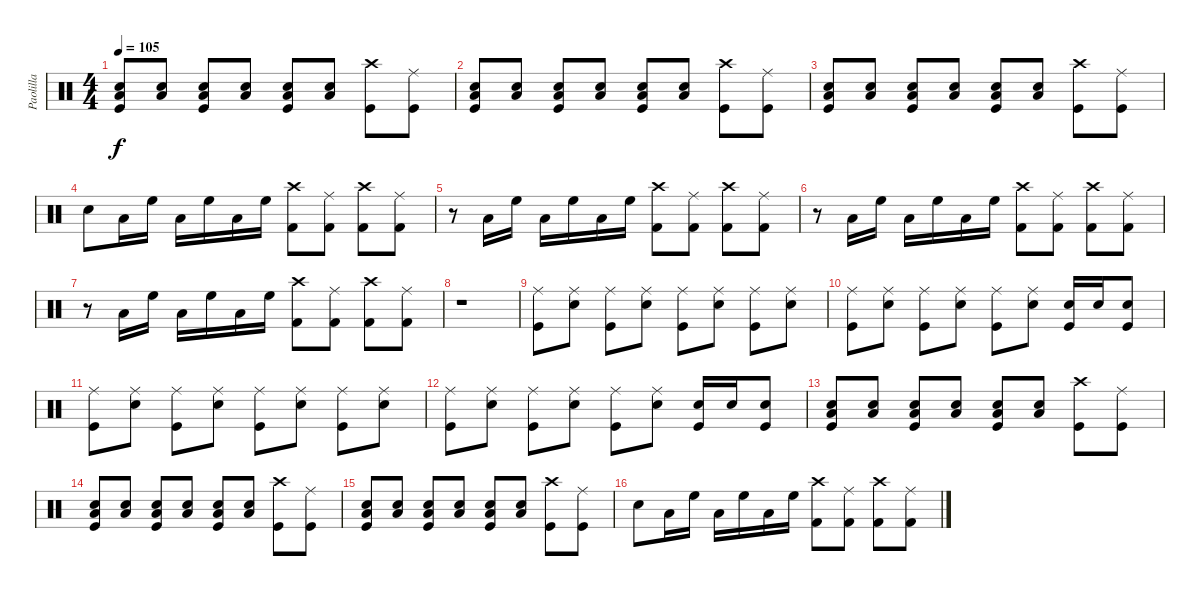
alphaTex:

\track ("Paolilla" "Paolilla") {instrument percussion}
\staff {score}
\articulation defaults
\ts (4 4)
\tempo 105
\clef neutral
\ks c
("Low Tom (hit)" "Snare (hit) 2" "Kick (hit)").8{dy f} ("Low Tom (hit)" "Snare (hit) 2").8 ("Low Tom (hit)" "Snare (hit) 2" "Kick (hit)").8 ("Low Tom (hit)" "Snare (hit) 2").8 ("Low Tom (hit)" "Snare (hit) 2" "Kick (hit)").8 ("Low Tom (hit)" "Snare (hit) 2").8 ("Crash high (hit)" "Kick (hit)").8 ("Ride (middle)" "Kick (hit)").8 |
("Low Tom (hit)" "Snare (hit) 2" "Kick (hit)").8 ("Low Tom (hit)" "Snare (hit) 2").8 ("Low Tom (hit)" "Snare (hit) 2" "Kick (hit)").8 ("Low Tom (hit)" "Snare (hit) 2").8 ("Low Tom (hit)" "Snare (hit) 2" "Kick (hit)").8 ("Low Tom (hit)" "Snare (hit) 2").8 ("Crash high (hit)" "Kick (hit)").8 ("Ride (middle)" "Kick (hit)").8 |
("Low Tom (hit)" "Snare (hit) 2" "Kick (hit)").8 ("Low Tom (hit)" "Snare (hit) 2").8 ("Low Tom (hit)" "Snare (hit) 2" "Kick (hit)").8 ("Low Tom (hit)" "Snare (hit) 2").8 ("Low Tom (hit)" "Snare (hit) 2" "Kick (hit)").8 ("Low Tom (hit)" "Snare (hit) 2").8 ("Crash high (hit)" "Kick (hit)").8 ("Ride (middle)" "Kick (hit)").8 |
"Snare (hit) 2".8 "Low Tom (hit)".16 "High Floor Tom (hit)".16 "Low Tom (hit)".16 "High Floor Tom (hit)".16 "Low Tom (hit)".16 "High Floor Tom (hit)".16 ("Crash high (hit)" "Kick (hit) 2").8 ("Ride (middle)" "Kick (hit) 2").8 ("Crash high (hit)" "Kick (hit) 2").8 ("Ride (middle)" "Kick (hit) 2").8 |
r.8 "Low Tom (hit)".16 "High Floor Tom (hit)".16 "Low Tom (hit)".16 "High Floor Tom (hit)".16 "Low Tom (hit)".16 "High Floor Tom (hit)".16 ("Crash high (hit)" "Kick (hit) 2").8 ("Ride (middle)" "Kick (hit) 2").8 ("Crash high (hit)" "Kick (hit) 2").8 ("Ride (middle)" "Kick (hit) 2").8 |
r.8 "Low Tom (hit)".16 "High Floor Tom (hit)".16 "Low Tom (hit)".16 "High Floor Tom (hit)".16 "Low Tom (hit)".16 "High Floor Tom (hit)".16 ("Crash high (hit)" "Kick (hit) 2").8 ("Ride (middle)" "Kick (hit) 2").8 ("Crash high (hit)" "Kick (hit) 2").8 ("Ride (middle)" "Kick (hit) 2").8 |
r.8 "Low Tom (hit)".16 "High Floor Tom (hit)".16 "Low Tom (hit)".16 "High Floor Tom (hit)".16 "Low Tom (hit)".16 "High Floor Tom (hit)".16 ("Crash high (hit)" "Kick (hit) 2").8 ("Ride (middle)" "Kick (hit) 2").8 ("Crash high (hit)" "Kick (hit) 2").8 ("Ride (middle)" "Kick (hit) 2").8 |
r.1 |
("Ride (middle)" "Kick (hit)").8 ("Ride (middle)" "Snare (hit) 2").8 ("Ride (middle)" "Kick (hit)").8 ("Ride (middle)" "Snare (hit) 2").8 ("Ride (middle)" "Kick (hit)").8 ("Ride (middle)" "Snare (hit) 2").8 ("Ride (middle)" "Kick (hit)").8 ("Ride (middle)" "Snare (hit) 2").8 |
("Ride (middle)" "Kick (hit)").8 ("Ride (middle)" "Snare (hit) 2").8 ("Ride (middle)" "Kick (hit)").8 ("Ride (middle)" "Snare (hit) 2").8 ("Ride (middle)" "Kick (hit)").8 ("Ride (middle)" "Snare (hit) 2").8 ("Snare (hit) 2" "Kick (hit)").16 "Snare (hit) 2".16 ("Kick (hit)" "Snare (hit) 2").8 |
("Ride (middle)" "Kick (hit)").8 ("Ride (middle)" "Snare (hit) 2").8 ("Ride (middle)" "Kick (hit)").8 ("Ride (middle)" "Snare (hit) 2").8 ("Ride (middle)" "Kick (hit)").8 ("Ride (middle)" "Snare (hit) 2").8 ("Ride (middle)" "Kick (hit)").8 ("Ride (middle)" "Snare (hit) 2").8 |
("Ride (middle)" "Kick (hit)").8 ("Ride (middle)" "Snare (hit) 2").8 ("Ride (middle)" "Kick (hit)").8 ("Ride (middle)" "Snare (hit) 2").8 ("Ride (middle)" "Kick (hit)").8 ("Ride (middle)" "Snare (hit) 2").8 ("Snare (hit) 2" "Kick (hit)").16 "Snare (hit) 2".16 ("Kick (hit)" "Snare (hit) 2").8 |
("Low Tom (hit)" "Snare (hit) 2" "Kick (hit)").8 ("Low Tom (hit)" "Snare (hit) 2").8 ("Low Tom (hit)" "Snare (hit) 2" "Kick (hit)").8 ("Low Tom (hit)" "Snare (hit) 2").8 ("Low Tom (hit)" "Snare (hit) 2" "Kick (hit)").8 ("Low Tom (hit)" "Snare (hit) 2").8 ("Crash high (hit)" "Kick (hit)").8 ("Ride (middle)" "Kick (hit)").8 |
("Low Tom (hit)" "Snare (hit) 2" "Kick (hit)").8 ("Low Tom (hit)" "Snare (hit) 2").8 ("Low Tom (hit)" "Snare (hit) 2" "Kick (hit)").8 ("Low Tom (hit)" "Snare (hit) 2").8 ("Low Tom (hit)" "Snare (hit) 2" "Kick (hit)").8 ("Low Tom (hit)" "Snare (hit) 2").8 ("Crash high (hit)" "Kick (hit)").8 ("Ride (middle)" "Kick (hit)").8 |
("Low Tom (hit)" "Snare (hit) 2" "Kick (hit)").8 ("Low Tom (hit)" "Snare (hit) 2").8 ("Low Tom (hit)" "Snare (hit) 2" "Kick (hit)").8 ("Low Tom (hit)" "Snare (hit) 2").8 ("Low Tom (hit)" "Snare (hit) 2" "Kick (hit)").8 ("Low Tom (hit)" "Snare (hit) 2").8 ("Crash high (hit)" "Kick (hit)").8 ("Ride (middle)" "Kick (hit)").8 |
"Snare (hit) 2".8 "Low Tom (hit)".16 "High Floor Tom (hit)".16 "Low Tom (hit)".16 "High Floor Tom (hit)".16 "Low Tom (hit)".16 "High Floor Tom (hit)".16 ("Crash high (hit)" "Kick (hit) 2").8 ("Ride (middle)" "Kick (hit) 2").8 ("Crash high (hit)" "Kick (hit) 2").8 ("Ride (middle)" "Kick (hit) 2").8
